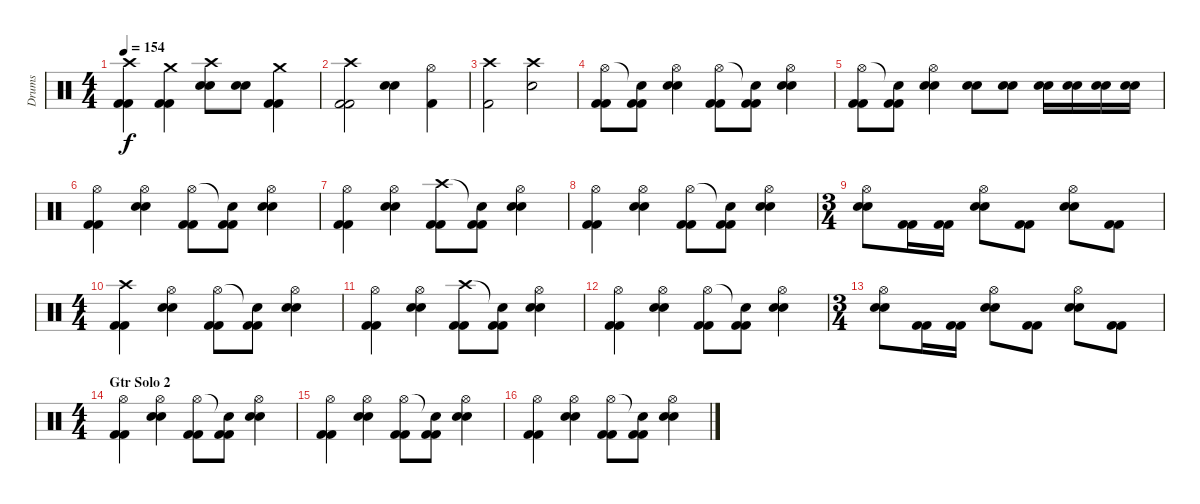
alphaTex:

\track ("Drums" "Drums") {instrument percussion}
\staff {score}
\articulation defaults
\ts (4 4)
\tempo 154
\clef neutral
\ks c
("Crash high (hit)" "Kick (hit) 2" "Kick (hit) 2").4{dy f} ("Crash medium (hit)" "Kick (hit) 2" "Kick (hit) 2").4 ("Crash high (hit)" "Snare (hit) 2" "Snare (hit) 2").8 ("Snare (hit) 2" "Snare (hit) 2").8 ("Crash medium (hit)" "Kick (hit) 2" "Kick (hit) 2").4 |
("Crash high (hit)" "Kick (hit) 2" "Kick (hit) 2").2 ("Snare (hit) 2" "Snare (hit) 2").4 ("Hi-Hat (open)" "Kick (hit) 2").4 |
("Crash high (hit)" "Kick (hit) 2").2 ("Crash high (hit)" "Snare (hit) 2").2 |
("Hi-Hat (open)" "Kick (hit) 2" "Kick (hit) 2").8 ("Snare (hit)"{t} "Kick (hit) 2" "Kick (hit) 2").8 ("Hi-Hat (open)" "Snare (hit) 2" "Snare (hit) 2").4 ("Hi-Hat (open)" "Kick (hit) 2" "Kick (hit) 2").8 ("Snare (hit)"{t} "Kick (hit) 2" "Kick (hit) 2").8 ("Hi-Hat (open)" "Snare (hit) 2" "Snare (hit) 2").4 |
("Hi-Hat (open)" "Kick (hit) 2" "Kick (hit) 2").8 ("Snare (hit)"{t} "Kick (hit) 2" "Kick (hit) 2").8 ("Hi-Hat (open)" "Snare (hit) 2" "Snare (hit) 2").4 ("Snare (hit) 2" "Snare (hit) 2").8 ("Snare (hit) 2" "Snare (hit) 2").8 ("Snare (hit) 2" "Snare (hit) 2").16 ("Snare (hit) 2" "Snare (hit) 2").16 ("Snare (hit) 2" "Snare (hit) 2").16 ("Snare (hit) 2" "Snare (hit) 2").16 |
("Hi-Hat (open)" "Kick (hit) 2" "Kick (hit) 2").4 ("Hi-Hat (open)" "Snare (hit) 2" "Snare (hit) 2").4 ("Hi-Hat (open)" "Kick (hit) 2" "Kick (hit) 2").8 ("Snare (hit)"{t} "Kick (hit) 2" "Kick (hit) 2").8 ("Hi-Hat (open)" "Snare (hit) 2" "Snare (hit) 2").4 |
("Hi-Hat (open)" "Kick (hit) 2" "Kick (hit) 2").4 ("Hi-Hat (open)" "Snare (hit) 2" "Snare (hit) 2").4 ("Crash high (hit)" "Kick (hit) 2" "Kick (hit) 2").8 ("Snare (hit)"{t} "Kick (hit) 2" "Kick (hit) 2").8 ("Hi-Hat (open)" "Snare (hit) 2" "Snare (hit) 2").4 |
("Hi-Hat (open)" "Kick (hit) 2" "Kick (hit) 2").4 ("Hi-Hat (open)" "Snare (hit) 2" "Snare (hit) 2").4 ("Hi-Hat (open)" "Kick (hit) 2" "Kick (hit) 2").8 ("Snare (hit)"{t} "Kick (hit) 2" "Kick (hit) 2").8 ("Hi-Hat (open)" "Snare (hit) 2" "Snare (hit) 2").4 |
\ts (3 4)
("Hi-Hat (open)" "Snare (hit) 2" "Snare (hit) 2").8 ("Kick (hit) 2" "Kick (hit) 2").16 ("Kick (hit) 2" "Kick (hit) 2").16 ("Hi-Hat (open)" "Snare (hit) 2" "Snare (hit) 2").8 ("Kick (hit) 2" "Kick (hit) 2").8 ("Hi-Hat (open)" "Snare (hit) 2" "Snare (hit) 2").8 ("Kick (hit) 2" "Kick (hit) 2").8 |
\ts (4 4)
("Crash high (hit)" "Kick (hit) 2" "Kick (hit) 2").4 ("Hi-Hat (open)" "Snare (hit) 2" "Snare (hit) 2").4 ("Hi-Hat (open)" "Kick (hit) 2" "Kick (hit) 2").8 ("Snare (hit)"{t} "Kick (hit) 2" "Kick (hit) 2").8 ("Hi-Hat (open)" "Snare (hit) 2" "Snare (hit) 2").4 |
("Hi-Hat (open)" "Kick (hit) 2" "Kick (hit) 2").4 ("Hi-Hat (open)" "Snare (hit) 2" "Snare (hit) 2").4 ("Crash high (hit)" "Kick (hit) 2" "Kick (hit) 2").8 ("Snare (hit)"{t} "Kick (hit) 2" "Kick (hit) 2").8 ("Hi-Hat (open)" "Snare (hit) 2" "Snare (hit) 2").4 |
("Hi-Hat (open)" "Kick (hit) 2" "Kick (hit) 2").4 ("Hi-Hat (open)" "Snare (hit) 2" "Snare (hit) 2").4 ("Hi-Hat (open)" "Kick (hit) 2" "Kick (hit) 2").8 ("Snare (hit)"{t} "Kick (hit) 2" "Kick (hit) 2").8 ("Hi-Hat (open)" "Snare (hit) 2" "Snare (hit) 2").4 |
\ts (3 4)
("Hi-Hat (open)" "Snare (hit) 2" "Snare (hit) 2").8 ("Kick (hit) 2" "Kick (hit) 2").16 ("Kick (hit) 2" "Kick (hit) 2").16 ("Hi-Hat (open)" "Snare (hit) 2" "Snare (hit) 2").8 ("Kick (hit) 2" "Kick (hit) 2").8 ("Hi-Hat (open)" "Snare (hit) 2" "Snare (hit) 2").8 ("Kick (hit) 2" "Kick (hit) 2").8 |
\ts (4 4)
\section ("" "Gtr Solo 2")
("Hi-Hat (open)" "Kick (hit) 2" "Kick (hit) 2").4 ("Hi-Hat (open)" "Snare (hit) 2" "Snare (hit) 2").4 ("Hi-Hat (open)" "Kick (hit) 2" "Kick (hit) 2").8 ("Snare (hit)"{t} "Kick (hit) 2" "Kick (hit) 2").8 ("Hi-Hat (open)" "Snare (hit) 2" "Snare (hit) 2").4 |
("Hi-Hat (open)" "Kick (hit) 2" "Kick (hit) 2").4 ("Hi-Hat (open)" "Snare (hit) 2" "Snare (hit) 2").4 ("Hi-Hat (open)" "Kick (hit) 2" "Kick (hit) 2").8 ("Snare (hit)"{t} "Kick (hit) 2" "Kick (hit) 2").8 ("Hi-Hat (open)" "Snare (hit) 2" "Snare (hit) 2").4 |
("Hi-Hat (open)" "Kick (hit) 2" "Kick (hit) 2").4 ("Hi-Hat (open)" "Snare (hit) 2" "Snare (hit) 2").4 ("Hi-Hat (open)" "Kick (hit) 2" "Kick (hit) 2").8 ("Snare (hit)"{t} "Kick (hit) 2" "Kick (hit) 2").8 ("Hi-Hat (open)" "Snare (hit) 2" "Snare (hit) 2").4
